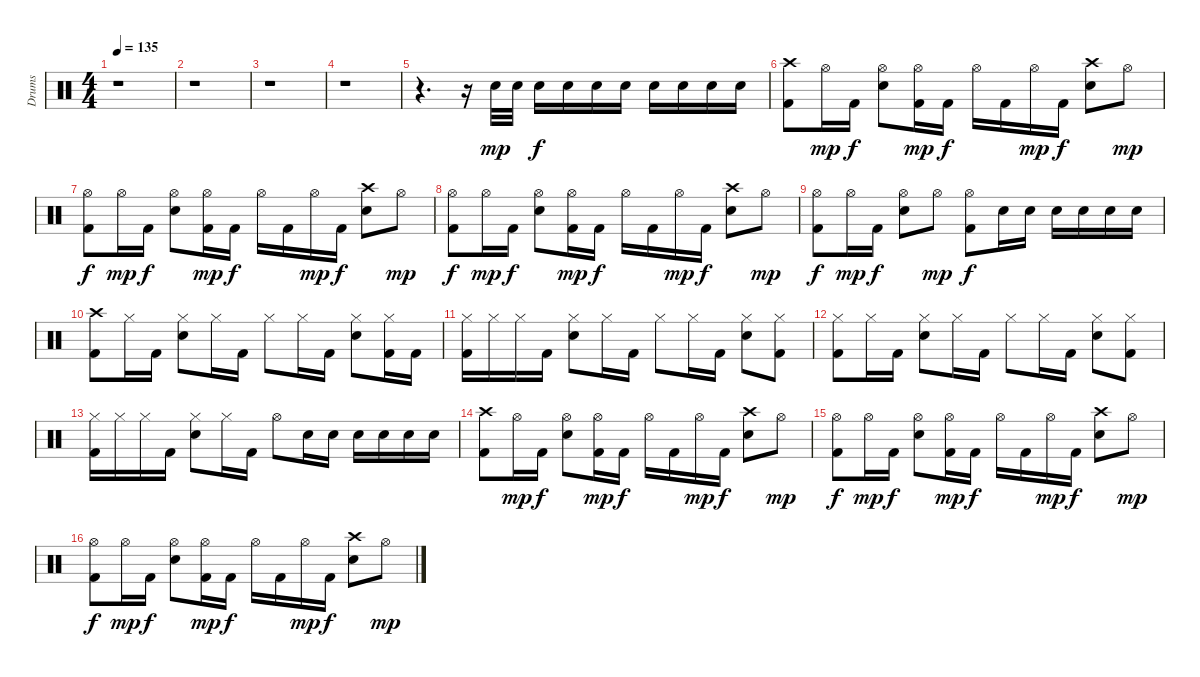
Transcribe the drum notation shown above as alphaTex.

\track ("Drums" "Drums") {instrument percussion}
\staff {score}
\articulation defaults
\ts (4 4)
\tempo 135
\clef neutral
\ks c
r.1{dy mp} |
r.1 |
r.1 |
r.1 |
r.4{d} r.16 "Electric Snare (hit)".32 "Electric Snare (hit)".32 "Electric Snare (hit)".16{dy f} "Electric Snare (hit)".16 "Electric Snare (hit)".16 "Electric Snare (hit)".16 "Electric Snare (hit)".16 "Electric Snare (hit)".16 "Electric Snare (hit)".16 "Electric Snare (hit)".16 |
("Crash high (hit)" "Kick (hit) 2").8 "Hi-Hat (open)".16{dy mp} "Kick (hit) 2".16{dy f} ("Hi-Hat (open)" "Electric Snare (hit)").8 ("Hi-Hat (open)" "Kick (hit) 2").16{dy mp} "Kick (hit) 2".16{dy f} "Hi-Hat (open)".16 "Kick (hit) 2".16 "Hi-Hat (open)".16{dy mp} "Kick (hit) 2".16{dy f} ("Crash high (hit)" "Electric Snare (hit)").8 "Hi-Hat (open)".8{dy mp} |
("Hi-Hat (open)" "Kick (hit) 2").8{dy f} "Hi-Hat (open)".16{dy mp} "Kick (hit) 2".16{dy f} ("Hi-Hat (open)" "Electric Snare (hit)").8 ("Hi-Hat (open)" "Kick (hit) 2").16{dy mp} "Kick (hit) 2".16{dy f} "Hi-Hat (open)".16 "Kick (hit) 2".16 "Hi-Hat (open)".16{dy mp} "Kick (hit) 2".16{dy f} ("Crash high (hit)" "Electric Snare (hit)").8 "Hi-Hat (open)".8{dy mp} |
("Hi-Hat (open)" "Kick (hit) 2").8{dy f} "Hi-Hat (open)".16{dy mp} "Kick (hit) 2".16{dy f} ("Hi-Hat (open)" "Electric Snare (hit)").8 ("Hi-Hat (open)" "Kick (hit) 2").16{dy mp} "Kick (hit) 2".16{dy f} "Hi-Hat (open)".16 "Kick (hit) 2".16 "Hi-Hat (open)".16{dy mp} "Kick (hit) 2".16{dy f} ("Crash high (hit)" "Electric Snare (hit)").8 "Hi-Hat (open)".8{dy mp} |
("Hi-Hat (open)" "Kick (hit) 2").8{dy f} "Hi-Hat (open)".16{dy mp} "Kick (hit) 2".16{dy f} ("Hi-Hat (open)" "Electric Snare (hit)").8 "Hi-Hat (open)".8{dy mp} ("Hi-Hat (open)" "Kick (hit) 2").8{dy f} "Electric Snare (hit)".16 "Electric Snare (hit)".16 "Electric Snare (hit)".16 "Electric Snare (hit)".16 "Electric Snare (hit)".16 "Electric Snare (hit)".16 |
("Crash high (hit)" "Kick (hit) 2").8 "Hi-Hat (closed)".16 "Kick (hit) 2".16 ("Hi-Hat (closed)" "Electric Snare (hit)").8 "Hi-Hat (closed)".16 "Kick (hit) 2".16 "Hi-Hat (closed)".8 "Hi-Hat (closed)".16 "Kick (hit) 2".16 ("Hi-Hat (closed)" "Electric Snare (hit)").8 ("Hi-Hat (closed)" "Kick (hit) 2").16 "Kick (hit) 2".16 |
("Hi-Hat (closed)" "Kick (hit) 2").16 "Hi-Hat (closed)".16 "Hi-Hat (closed)".16 "Kick (hit) 2".16 ("Hi-Hat (closed)" "Electric Snare (hit)").8 "Hi-Hat (closed)".16 "Kick (hit) 2".16 "Hi-Hat (closed)".8 "Hi-Hat (closed)".16 "Kick (hit) 2".16 ("Hi-Hat (closed)" "Electric Snare (hit)").8 ("Hi-Hat (closed)" "Kick (hit) 2").8 |
("Hi-Hat (closed)" "Kick (hit) 2").8 "Hi-Hat (closed)".16 "Kick (hit) 2".16 ("Hi-Hat (closed)" "Electric Snare (hit)").8 "Hi-Hat (closed)".16 "Kick (hit) 2".16 "Hi-Hat (closed)".8 "Hi-Hat (closed)".16 "Kick (hit) 2".16 ("Hi-Hat (closed)" "Electric Snare (hit)").8 ("Hi-Hat (closed)" "Kick (hit) 2").8 |
("Hi-Hat (closed)" "Kick (hit) 2").16 "Hi-Hat (closed)".16 "Hi-Hat (closed)".16 "Kick (hit) 2".16 ("Hi-Hat (closed)" "Electric Snare (hit)").8 "Hi-Hat (closed)".16 "Kick (hit) 2".16 "Hi-Hat (open)".8 "Electric Snare (hit)".16 "Electric Snare (hit)".16 "Electric Snare (hit)".16 "Electric Snare (hit)".16 "Electric Snare (hit)".16 "Electric Snare (hit)".16 |
("Crash high (hit)" "Kick (hit) 2").8 "Hi-Hat (open)".16{dy mp} "Kick (hit) 2".16{dy f} ("Hi-Hat (open)" "Electric Snare (hit)").8 ("Hi-Hat (open)" "Kick (hit) 2").16{dy mp} "Kick (hit) 2".16{dy f} "Hi-Hat (open)".16 "Kick (hit) 2".16 "Hi-Hat (open)".16{dy mp} "Kick (hit) 2".16{dy f} ("Crash high (hit)" "Electric Snare (hit)").8 "Hi-Hat (open)".8{dy mp} |
("Hi-Hat (open)" "Kick (hit) 2").8{dy f} "Hi-Hat (open)".16{dy mp} "Kick (hit) 2".16{dy f} ("Hi-Hat (open)" "Electric Snare (hit)").8 ("Hi-Hat (open)" "Kick (hit) 2").16{dy mp} "Kick (hit) 2".16{dy f} "Hi-Hat (open)".16 "Kick (hit) 2".16 "Hi-Hat (open)".16{dy mp} "Kick (hit) 2".16{dy f} ("Crash high (hit)" "Electric Snare (hit)").8 "Hi-Hat (open)".8{dy mp} |
("Hi-Hat (open)" "Kick (hit) 2").8{dy f} "Hi-Hat (open)".16{dy mp} "Kick (hit) 2".16{dy f} ("Hi-Hat (open)" "Electric Snare (hit)").8 ("Hi-Hat (open)" "Kick (hit) 2").16{dy mp} "Kick (hit) 2".16{dy f} "Hi-Hat (open)".16 "Kick (hit) 2".16 "Hi-Hat (open)".16{dy mp} "Kick (hit) 2".16{dy f} ("Crash high (hit)" "Electric Snare (hit)").8 "Hi-Hat (open)".8{dy mp}
